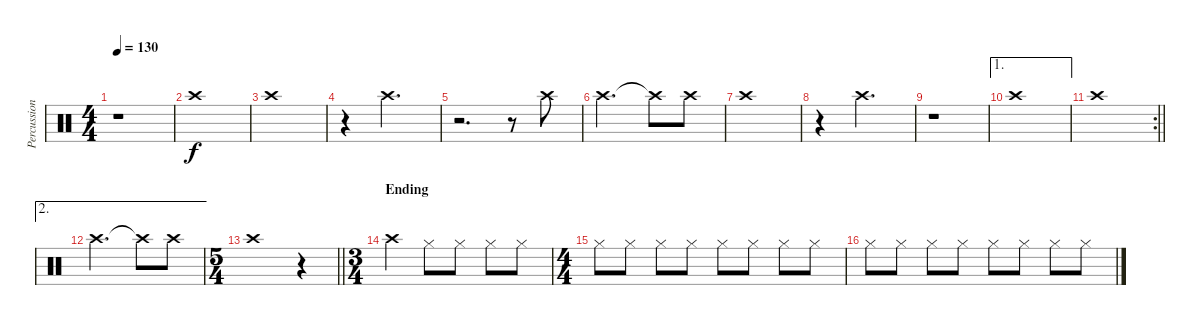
\track ("Percussion 2" "Percussion") {instrument percussion}
\staff {score}
\articulation defaults
\ts (4 4)
\tempo 130
\clef neutral
\ks c
r.1{dy f} |
"Crash high (hit)".1 |
"Crash high (hit)".1 |
r.4 "Crash high (hit)".2{d} |
r.2{d} r.8 "Crash high (hit)".8 |
"Crash high (hit)".2{d} "Crash high (hit)"{t}.8 "Crash high (hit)".8 |
"Crash high (hit)".1 |
r.4 "Crash high (hit)".2{d} |
r.1 |
\ae 1 "Crash high (hit)".1
|
\rc 2
\barLineRight lightlight "Crash high (hit)".1
|
\ae 2 "Crash high (hit)".2{d} "Crash high (hit)"{t}.8 "Crash high (hit)".8
|
\ts (5 4)
\barLineRight lightlight "Crash high (hit)".1
r.4 |
\ts (3 4)
\section ("" "Ending")
"Crash high (hit)".4 "Hi-Hat (closed)".8 "Hi-Hat (closed)".8 "Hi-Hat (closed)".8 "Hi-Hat (closed)".8 |
\ts (4 4)
"Hi-Hat (closed)".8 "Hi-Hat (closed)".8 "Hi-Hat (closed)".8 "Hi-Hat (closed)".8 "Hi-Hat (closed)".8 "Hi-Hat (closed)".8 "Hi-Hat (closed)".8 "Hi-Hat (closed)".8 |
"Hi-Hat (closed)".8 "Hi-Hat (closed)".8 "Hi-Hat (closed)".8 "Hi-Hat (closed)".8 "Hi-Hat (closed)".8 "Hi-Hat (closed)".8 "Hi-Hat (closed)".8 "Hi-Hat (closed)".8
